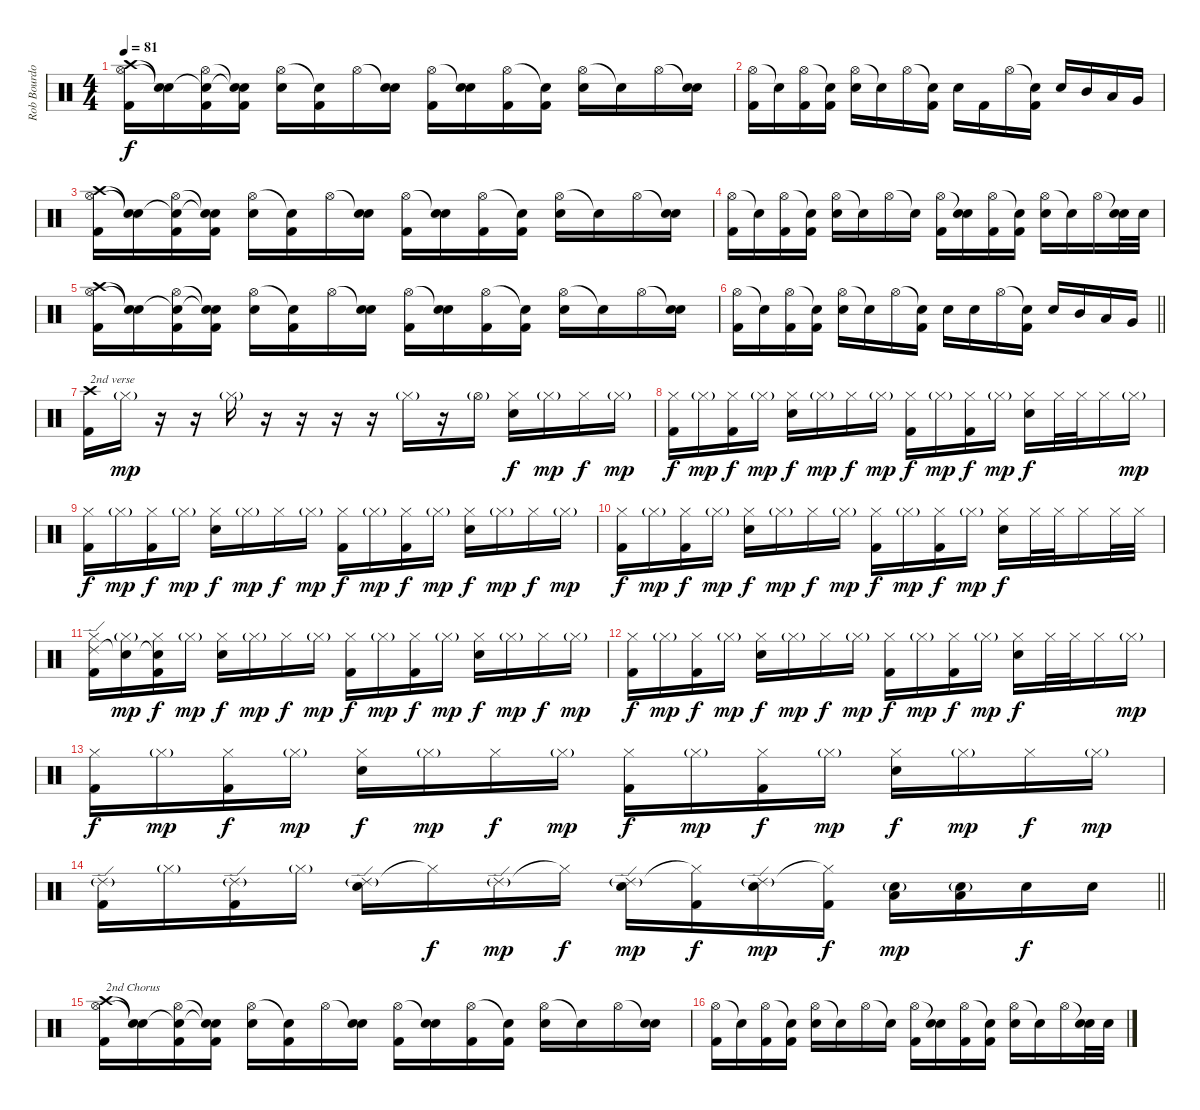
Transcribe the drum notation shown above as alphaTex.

\track ("Rob Bourdon - Drums" "Rob Bourdo") {instrument percussion}
\staff {score}
\articulation defaults
\ts (4 4)
\tempo 81
\clef neutral
\ks c
("Crash high (hit)" "Hi-Hat (open)" "Kick (hit) 2").16{dy f} ("Snare (hit)"{t} "Snare (hit)"{t}).16 ("Snare (hit)"{t} "Hi-Hat (open)" "Kick (hit) 2").16 ("Snare (hit)"{t} "Snare (hit)"{t} "Kick (hit) 2").16 ("Hi-Hat (open)" "Electric Snare (hit)").16 ("Snare (hit)"{t} "Kick (hit) 2").16 "Hi-Hat (open)".16 ("Snare (hit)"{t} "Electric Snare (hit)").16 ("Hi-Hat (open)" "Kick (hit) 2").16 ("Snare (hit)"{t} "Electric Snare (hit)").16 ("Hi-Hat (open)" "Kick (hit) 2").16 ("Snare (hit)"{t} "Kick (hit) 2").16 ("Hi-Hat (open)" "Electric Snare (hit)").16 "Snare (hit)"{t}.16 "Hi-Hat (open)".16 ("Snare (hit)"{t} "Electric Snare (hit)").16 |
("Hi-Hat (open)" "Kick (hit) 2").16 "Snare (hit)"{t}.16 ("Hi-Hat (open)" "Kick (hit) 2").16 ("Snare (hit)"{t} "Kick (hit) 2").16 ("Hi-Hat (open)" "Electric Snare (hit)").16 "Snare (hit)"{t}.16 "Hi-Hat (open)".16 ("Snare (hit)"{t} "Kick (hit) 2").16 "Electric Snare (hit)".16 "Kick (hit) 2".16 "Hi-Hat (open)".16 ("Snare (hit)"{t} "Kick (hit) 2").16 "Electric Snare (hit)".16 "Mid Tom (hit)".16 "Low Tom (hit)".16 "Very Low Tom (hit)".16 |
("Crash high (hit)" "Hi-Hat (open)" "Kick (hit) 2").16 ("Snare (hit)"{t} "Snare (hit)"{t}).16 ("Snare (hit)"{t} "Hi-Hat (open)" "Kick (hit) 2").16 ("Snare (hit)"{t} "Snare (hit)"{t} "Kick (hit) 2").16 ("Hi-Hat (open)" "Electric Snare (hit)").16 ("Snare (hit)"{t} "Kick (hit) 2").16 "Hi-Hat (open)".16 ("Snare (hit)"{t} "Electric Snare (hit)").16 ("Hi-Hat (open)" "Kick (hit) 2").16 ("Snare (hit)"{t} "Electric Snare (hit)").16 ("Hi-Hat (open)" "Kick (hit) 2").16 ("Snare (hit)"{t} "Kick (hit) 2").16 ("Hi-Hat (open)" "Electric Snare (hit)").16 "Snare (hit)"{t}.16 "Hi-Hat (open)".16 ("Snare (hit)"{t} "Electric Snare (hit)").16 |
("Hi-Hat (open)" "Kick (hit) 2").16 "Snare (hit)"{t}.16 ("Hi-Hat (open)" "Kick (hit) 2").16 ("Snare (hit)"{t} "Kick (hit) 2").16 ("Hi-Hat (open)" "Electric Snare (hit)").16 "Snare (hit)"{t}.16 "Hi-Hat (open)".16 "Snare (hit)"{t}.16 ("Hi-Hat (open)" "Kick (hit) 2").16 ("Snare (hit)"{t} "Electric Snare (hit)").16 ("Hi-Hat (open)" "Kick (hit) 2").16 ("Snare (hit)"{t} "Kick (hit) 2").16 ("Hi-Hat (open)" "Electric Snare (hit)").16 "Snare (hit)"{t}.16 "Hi-Hat (open)".16 ("Snare (hit)"{t} "Electric Snare (hit)").32 "Electric Snare (hit)".32 |
("Crash high (hit)" "Hi-Hat (open)" "Kick (hit) 2").16 ("Snare (hit)"{t} "Snare (hit)"{t}).16 ("Snare (hit)"{t} "Hi-Hat (open)" "Kick (hit) 2").16 ("Snare (hit)"{t} "Snare (hit)"{t} "Kick (hit) 2").16 ("Hi-Hat (open)" "Electric Snare (hit)").16 ("Snare (hit)"{t} "Kick (hit) 2").16 "Hi-Hat (open)".16 ("Snare (hit)"{t} "Electric Snare (hit)").16 ("Hi-Hat (open)" "Kick (hit) 2").16 ("Snare (hit)"{t} "Electric Snare (hit)").16 ("Hi-Hat (open)" "Kick (hit) 2").16 ("Snare (hit)"{t} "Kick (hit) 2").16 ("Hi-Hat (open)" "Electric Snare (hit)").16 "Snare (hit)"{t}.16 "Hi-Hat (open)".16 ("Snare (hit)"{t} "Electric Snare (hit)").16 |
\barLineRight lightlight
("Hi-Hat (open)" "Kick (hit) 2").16 "Snare (hit)"{t}.16 ("Hi-Hat (open)" "Kick (hit) 2").16 ("Snare (hit)"{t} "Kick (hit) 2").16 ("Hi-Hat (open)" "Electric Snare (hit)").16 "Snare (hit)"{t}.16 "Hi-Hat (open)".16 ("Snare (hit)"{t} "Kick (hit) 2").16 "Electric Snare (hit)".16 "Electric Snare (hit)".16 "Hi-Hat (open)".16 ("Snare (hit)"{t} "Kick (hit) 2").16 "Electric Snare (hit)".16 "Mid Tom (hit)".16 "Low Tom (hit)".16 "Very Low Tom (hit)".16 |
("Crash high (hit)" "Kick (hit) 2").16{txt "2nd verse"} "Hi-Hat (closed)"{g}.16{dy mp} r.16 r.16 "Hi-Hat (closed)"{g}.16 r.16 r.16 r.16 r.16 "Hi-Hat (closed)"{g}.16 r.16 "Hi-Hat (open)"{g}.16 ("Hi-Hat (closed)" "Electric Snare (hit)").16{dy f} "Hi-Hat (closed)"{g}.16{dy mp} "Hi-Hat (closed)".16{dy f} "Hi-Hat (closed)"{g}.16{dy mp} |
("Hi-Hat (closed)" "Kick (hit) 2").16{dy f} "Hi-Hat (closed)"{g}.16{dy mp} ("Hi-Hat (closed)" "Kick (hit) 2").16{dy f} "Hi-Hat (closed)"{g}.16{dy mp} ("Hi-Hat (closed)" "Electric Snare (hit)").16{dy f} "Hi-Hat (closed)"{g}.16{dy mp} "Hi-Hat (closed)".16{dy f} "Hi-Hat (closed)"{g}.16{dy mp} ("Hi-Hat (closed)" "Kick (hit) 2").16{dy f} "Hi-Hat (closed)"{g}.16{dy mp} ("Hi-Hat (closed)" "Kick (hit) 2").16{dy f} "Hi-Hat (closed)"{g}.16{dy mp} ("Hi-Hat (closed)" "Electric Snare (hit)").16{dy f} "Hi-Hat (closed)".32 "Hi-Hat (closed)".32 "Hi-Hat (closed)".16 "Hi-Hat (closed)"{g}.16{dy mp} |
("Hi-Hat (closed)" "Kick (hit) 2").16{dy f} "Hi-Hat (closed)"{g}.16{dy mp} ("Hi-Hat (closed)" "Kick (hit) 2").16{dy f} "Hi-Hat (closed)"{g}.16{dy mp} ("Hi-Hat (closed)" "Electric Snare (hit)").16{dy f} "Hi-Hat (closed)"{g}.16{dy mp} "Hi-Hat (closed)".16{dy f} "Hi-Hat (closed)"{g}.16{dy mp} ("Hi-Hat (closed)" "Kick (hit) 2").16{dy f} "Hi-Hat (closed)"{g}.16{dy mp} ("Hi-Hat (closed)" "Kick (hit) 2").16{dy f} "Hi-Hat (closed)"{g}.16{dy mp} ("Hi-Hat (closed)" "Electric Snare (hit)").16{dy f} "Hi-Hat (closed)"{g}.16{dy mp} "Hi-Hat (closed)".16{dy f} "Hi-Hat (closed)"{g}.16{dy mp} |
("Hi-Hat (closed)" "Kick (hit) 2").16{dy f} "Hi-Hat (closed)"{g}.16{dy mp} ("Hi-Hat (closed)" "Kick (hit) 2").16{dy f} "Hi-Hat (closed)"{g}.16{dy mp} ("Hi-Hat (closed)" "Electric Snare (hit)").16{dy f} "Hi-Hat (closed)"{g}.16{dy mp} "Hi-Hat (closed)".16{dy f} "Hi-Hat (closed)"{g}.16{dy mp} ("Hi-Hat (closed)" "Kick (hit) 2").16{dy f} "Hi-Hat (closed)"{g}.16{dy mp} ("Hi-Hat (closed)" "Kick (hit) 2").16{dy f} "Hi-Hat (closed)"{g}.16{dy mp} ("Hi-Hat (closed)" "Electric Snare (hit)").16{dy f} "Hi-Hat (closed)".32 "Hi-Hat (closed)".32 "Hi-Hat (closed)".16 "Hi-Hat (closed)".32 "Hi-Hat (closed)".32 |
("Ride (edge) 2" "Hi-Hat (closed)" "Kick (hit) 2").16 ("Snare (hit)"{t} "Hi-Hat (closed)"{g}).16{dy mp} ("Snare (hit)"{t} "Hi-Hat (closed)" "Kick (hit) 2").16{dy f} "Hi-Hat (closed)"{g}.16{dy mp} ("Hi-Hat (closed)" "Electric Snare (hit)").16{dy f} "Hi-Hat (closed)"{g}.16{dy mp} "Hi-Hat (closed)".16{dy f} "Hi-Hat (closed)"{g}.16{dy mp} ("Hi-Hat (closed)" "Kick (hit) 2").16{dy f} "Hi-Hat (closed)"{g}.16{dy mp} ("Hi-Hat (closed)" "Kick (hit) 2").16{dy f} "Hi-Hat (closed)"{g}.16{dy mp} ("Hi-Hat (closed)" "Electric Snare (hit)").16{dy f} "Hi-Hat (closed)"{g}.16{dy mp} "Hi-Hat (closed)".16{dy f} "Hi-Hat (closed)"{g}.16{dy mp} |
("Hi-Hat (closed)" "Kick (hit) 2").16{dy f} "Hi-Hat (closed)"{g}.16{dy mp} ("Hi-Hat (closed)" "Kick (hit) 2").16{dy f} "Hi-Hat (closed)"{g}.16{dy mp} ("Hi-Hat (closed)" "Electric Snare (hit)").16{dy f} "Hi-Hat (closed)"{g}.16{dy mp} "Hi-Hat (closed)".16{dy f} "Hi-Hat (closed)"{g}.16{dy mp} ("Hi-Hat (closed)" "Kick (hit) 2").16{dy f} "Hi-Hat (closed)"{g}.16{dy mp} ("Hi-Hat (closed)" "Kick (hit) 2").16{dy f} "Hi-Hat (closed)"{g}.16{dy mp} ("Hi-Hat (closed)" "Electric Snare (hit)").16{dy f} "Hi-Hat (closed)".32 "Hi-Hat (closed)".32 "Hi-Hat (closed)".16 "Hi-Hat (closed)"{g}.16{dy mp} |
("Hi-Hat (closed)" "Kick (hit) 2").16{dy f} "Hi-Hat (closed)"{g}.16{dy mp} ("Hi-Hat (closed)" "Kick (hit) 2").16{dy f} "Hi-Hat (closed)"{g}.16{dy mp} ("Hi-Hat (closed)" "Electric Snare (hit)").16{dy f} "Hi-Hat (closed)"{g}.16{dy mp} "Hi-Hat (closed)".16{dy f} "Hi-Hat (closed)"{g}.16{dy mp} ("Hi-Hat (closed)" "Kick (hit) 2").16{dy f} "Hi-Hat (closed)"{g}.16{dy mp} ("Hi-Hat (closed)" "Kick (hit) 2").16{dy f} "Hi-Hat (closed)"{g}.16{dy mp} ("Hi-Hat (closed)" "Electric Snare (hit)").16{dy f} "Hi-Hat (closed)"{g}.16{dy mp} "Hi-Hat (closed)".16{dy f} "Hi-Hat (closed)"{g}.16{dy mp} |
\barLineRight lightlight
("Ride (edge) 2"{g} "Kick (hit) 2").16 "Hi-Hat (closed)"{g}.16 ("Ride (edge) 2"{g} "Kick (hit) 2").16 "Hi-Hat (closed)"{g}.16 ("Ride (edge) 2"{g} "Electric Snare (hit)").16 "Hi-Hat (closed)"{t}.16{dy f} "Ride (edge) 2"{g}.16{dy mp} "Hi-Hat (closed)"{t}.16{dy f} ("Ride (edge) 2"{g} "Electric Snare (hit)").16{dy mp} ("Hi-Hat (closed)"{t} "Kick (hit) 2").16{dy f} ("Ride (edge) 2"{g} "Electric Snare (hit)").16{dy mp} ("Hi-Hat (closed)"{t} "Kick (hit) 2").16{dy f} ("Electric Snare (hit)"{g} "Low Tom (hit)").16{dy mp} ("Electric Snare (hit)"{g} "Low Tom (hit)").16 "Electric Snare (hit)".16{dy f} "Electric Snare (hit)".16 |
("Crash high (hit)" "Hi-Hat (open)" "Kick (hit) 2").16{txt "2nd Chorus"} ("Snare (hit)"{t} "Snare (hit)"{t}).16 ("Snare (hit)"{t} "Hi-Hat (open)" "Kick (hit) 2").16 ("Snare (hit)"{t} "Snare (hit)"{t} "Kick (hit) 2").16 ("Hi-Hat (open)" "Electric Snare (hit)").16 ("Snare (hit)"{t} "Kick (hit) 2").16 "Hi-Hat (open)".16 ("Snare (hit)"{t} "Electric Snare (hit)").16 ("Hi-Hat (open)" "Kick (hit) 2").16 ("Snare (hit)"{t} "Electric Snare (hit)").16 ("Hi-Hat (open)" "Kick (hit) 2").16 ("Snare (hit)"{t} "Kick (hit) 2").16 ("Hi-Hat (open)" "Electric Snare (hit)").16 "Snare (hit)"{t}.16 "Hi-Hat (open)".16 ("Snare (hit)"{t} "Electric Snare (hit)").16 |
("Hi-Hat (open)" "Kick (hit) 2").16 "Snare (hit)"{t}.16 ("Hi-Hat (open)" "Kick (hit) 2").16 ("Snare (hit)"{t} "Kick (hit) 2").16 ("Hi-Hat (open)" "Electric Snare (hit)").16 "Snare (hit)"{t}.16 "Hi-Hat (open)".16 "Snare (hit)"{t}.16 ("Hi-Hat (open)" "Kick (hit) 2").16 ("Snare (hit)"{t} "Electric Snare (hit)").16 ("Hi-Hat (open)" "Kick (hit) 2").16 ("Snare (hit)"{t} "Kick (hit) 2").16 ("Hi-Hat (open)" "Electric Snare (hit)").16 "Snare (hit)"{t}.16 "Hi-Hat (open)".16 ("Snare (hit)"{t} "Electric Snare (hit)").32 "Electric Snare (hit)".32
